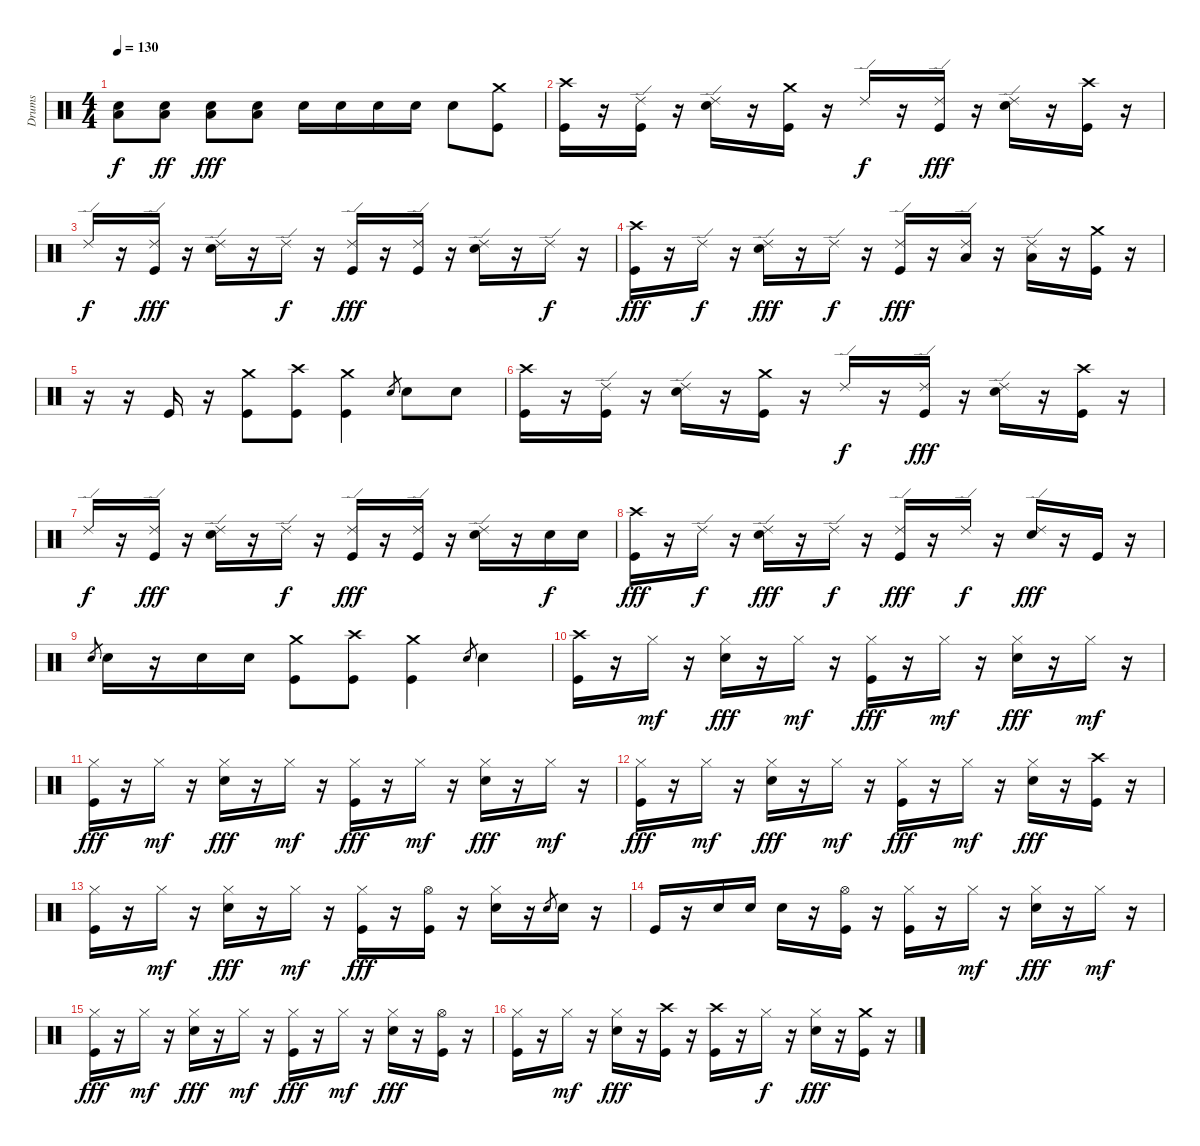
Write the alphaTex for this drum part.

\track ("Drums" "Drums") {instrument percussion}
\staff {score}
\articulation defaults
\ts (4 4)
\tempo 130
\clef neutral
\ks c
("Low Floor Tom (hit)" "Electric Snare (hit)").8{dy f} ("Low Floor Tom (hit)" "Electric Snare (hit)").8{dy ff} ("Low Floor Tom (hit)" "Electric Snare (hit)").8{dy fff} ("Low Floor Tom (hit)" "Electric Snare (hit)").8 "Electric Snare (hit)".16 "Electric Snare (hit)".16 "Electric Snare (hit)".16 "Electric Snare (hit)".16 "Electric Snare (hit)".8 ("Kick (hit)" "Crash medium (hit)").8 |
("Kick (hit)" "Crash high (hit)").16 r.16 ("Kick (hit)" "Ride (edge) 2").16 r.16 ("Electric Snare (hit)" "Ride (edge) 2").16 r.16 ("Kick (hit)" "Crash medium (hit)").16 r.16 "Ride (edge) 2".16{dy f} r.16 ("Kick (hit)" "Ride (edge) 2").16{dy fff} r.16 ("Electric Snare (hit)" "Ride (edge) 2").16 r.16 ("Kick (hit)" "Crash high (hit)").16 r.16 |
"Ride (edge) 2".16{dy f} r.16 ("Kick (hit)" "Ride (edge) 2").16{dy fff} r.16 ("Electric Snare (hit)" "Ride (edge) 2").16 r.16 "Ride (edge) 2".16{dy f} r.16 ("Kick (hit)" "Ride (edge) 2").16{dy fff} r.16 ("Kick (hit)" "Ride (edge) 2").16 r.16 ("Electric Snare (hit)" "Ride (edge) 2").16 r.16 "Ride (edge) 2".16{dy f} r.16 |
("Kick (hit)" "Crash high (hit)").16{dy fff} r.16 "Ride (edge) 2".16{dy f} r.16 ("Electric Snare (hit)" "Ride (edge) 2").16{dy fff} r.16 "Ride (edge) 2".16{dy f} r.16 ("Kick (hit)" "Ride (edge) 2").16{dy fff} r.16 ("Low Tom (hit)" "Ride (edge) 2").16 r.16 ("Low Floor Tom (hit)" "Ride (edge) 2").16 r.16 ("Kick (hit)" "Crash medium (hit)").16 r.16 |
r.16 r.16 "Kick (hit)".16 r.16 ("Kick (hit)" "Crash medium (hit)").8 ("Kick (hit)" "Crash high (hit)").8 ("Kick (hit)" "Crash medium (hit)").4 "Electric Snare (hit)".8{gr} "Electric Snare (hit)".8 "Electric Snare (hit)".8 |
("Kick (hit)" "Crash high (hit)").16 r.16 ("Kick (hit)" "Ride (edge) 2").16 r.16 ("Electric Snare (hit)" "Ride (edge) 2").16 r.16 ("Kick (hit)" "Crash medium (hit)").16 r.16 "Ride (edge) 2".16{dy f} r.16 ("Kick (hit)" "Ride (edge) 2").16{dy fff} r.16 ("Electric Snare (hit)" "Ride (edge) 2").16 r.16 ("Kick (hit)" "Crash high (hit)").16 r.16 |
"Ride (edge) 2".16{dy f} r.16 ("Kick (hit)" "Ride (edge) 2").16{dy fff} r.16 ("Electric Snare (hit)" "Ride (edge) 2").16 r.16 "Ride (edge) 2".16{dy f} r.16 ("Kick (hit)" "Ride (edge) 2").16{dy fff} r.16 ("Kick (hit)" "Ride (edge) 2").16 r.16 ("Electric Snare (hit)" "Ride (edge) 2").16 r.16 "Electric Snare (hit)".16{dy f} "Electric Snare (hit)".16 |
("Kick (hit)" "Crash high (hit)").16{dy fff} r.16 "Ride (edge) 2".16{dy f} r.16 ("Electric Snare (hit)" "Ride (edge) 2").16{dy fff} r.16 "Ride (edge) 2".16{dy f} r.16 ("Kick (hit)" "Ride (edge) 2").16{dy fff} r.16 "Ride (edge) 2".16{dy f} r.16 ("Electric Snare (hit)" "Ride (edge) 2").16{dy fff} r.16 "Kick (hit)".16 r.16 |
"Electric Snare (hit)".8{gr} "Electric Snare (hit)".16 r.16 "Electric Snare (hit)".16 "Electric Snare (hit)".16 ("Kick (hit)" "Crash medium (hit)").8 ("Kick (hit)" "Crash high (hit)").8 ("Kick (hit)" "Crash medium (hit)").4 "Electric Snare (hit)".8{gr} "Electric Snare (hit)".4 |
("Kick (hit)" "Crash high (hit)").16 r.16 "Hi-Hat (closed)".16{dy mf} r.16 ("Electric Snare (hit)" "Hi-Hat (closed)").16{dy fff} r.16 "Hi-Hat (closed)".16{dy mf} r.16 ("Kick (hit)" "Hi-Hat (closed)").16{dy fff} r.16 "Hi-Hat (closed)".16{dy mf} r.16 ("Electric Snare (hit)" "Hi-Hat (closed)").16{dy fff} r.16 "Hi-Hat (closed)".16{dy mf} r.16 |
("Kick (hit)" "Hi-Hat (closed)").16{dy fff} r.16 "Hi-Hat (closed)".16{dy mf} r.16 ("Electric Snare (hit)" "Hi-Hat (closed)").16{dy fff} r.16 "Hi-Hat (closed)".16{dy mf} r.16 ("Kick (hit)" "Hi-Hat (closed)").16{dy fff} r.16 "Hi-Hat (closed)".16{dy mf} r.16 ("Electric Snare (hit)" "Hi-Hat (closed)").16{dy fff} r.16 "Hi-Hat (closed)".16{dy mf} r.16 |
("Kick (hit)" "Hi-Hat (closed)").16{dy fff} r.16 "Hi-Hat (closed)".16{dy mf} r.16 ("Electric Snare (hit)" "Hi-Hat (closed)").16{dy fff} r.16 "Hi-Hat (closed)".16{dy mf} r.16 ("Kick (hit)" "Hi-Hat (closed)").16{dy fff} r.16 "Hi-Hat (closed)".16{dy mf} r.16 ("Electric Snare (hit)" "Hi-Hat (closed)").16{dy fff} r.16 ("Kick (hit)" "Crash high (hit)").16 r.16 |
("Kick (hit)" "Hi-Hat (closed)").16 r.16 "Hi-Hat (closed)".16{dy mf} r.16 ("Electric Snare (hit)" "Hi-Hat (closed)").16{dy fff} r.16 "Hi-Hat (closed)".16{dy mf} r.16 ("Kick (hit)" "Hi-Hat (closed)").16{dy fff} r.16 ("Kick (hit)" "Hi-Hat (open)").16 r.16 ("Electric Snare (hit)" "Hi-Hat (closed)").16 r.16 "Electric Snare (hit)".8{gr} "Electric Snare (hit)".16 r.16 |
"Kick (hit)".16 r.16 "Electric Snare (hit)".16 "Electric Snare (hit)".16 "Electric Snare (hit)".16 r.16 ("Kick (hit)" "Hi-Hat (open)").16 r.16 ("Kick (hit)" "Hi-Hat (closed)").16 r.16 "Hi-Hat (closed)".16{dy mf} r.16 ("Electric Snare (hit)" "Hi-Hat (closed)").16{dy fff} r.16 "Hi-Hat (closed)".16{dy mf} r.16 |
("Kick (hit)" "Hi-Hat (closed)").16{dy fff} r.16 "Hi-Hat (closed)".16{dy mf} r.16 ("Electric Snare (hit)" "Hi-Hat (closed)").16{dy fff} r.16 "Hi-Hat (closed)".16{dy mf} r.16 ("Kick (hit)" "Hi-Hat (closed)").16{dy fff} r.16 "Hi-Hat (closed)".16{dy mf} r.16 ("Electric Snare (hit)" "Hi-Hat (closed)").16{dy fff} r.16 ("Kick (hit)" "Hi-Hat (open)").16 r.16 |
("Kick (hit)" "Hi-Hat (closed)").16 r.16 "Hi-Hat (closed)".16{dy mf} r.16 ("Electric Snare (hit)" "Hi-Hat (closed)").16{dy fff} r.16 ("Kick (hit)" "Crash high (hit)").16 r.16 ("Kick (hit)" "Crash high (hit)").16 r.16 "Hi-Hat (closed)".16{dy f} r.16 ("Electric Snare (hit)" "Hi-Hat (closed)").16{dy fff} r.16 ("Kick (hit)" "Crash medium (hit)").16 r.16
